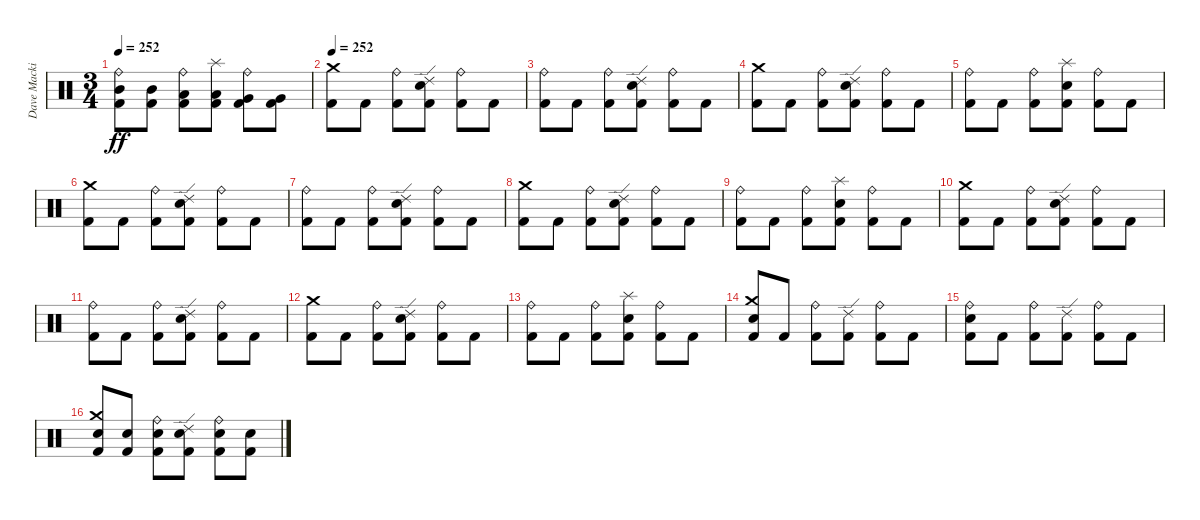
\track ("Dave Mackintosh" "Dave Macki") {instrument percussion}
\staff {score}
\articulation defaults
\ts (3 4)
\tempo 252
\clef neutral
\ks c
("Ride (bell)" "Mid Tom (hit)" "Kick (hit) 2").8{dy ff} ("Mid Tom (hit)" "Kick (hit) 2").8 ("Ride (bell)" "Low Tom (hit)" "Kick (hit) 2").8 ("Splash (hit)" "Low Tom (hit)" "Kick (hit) 2").8 ("Ride (bell)" "Very Low Tom (hit)" "Kick (hit) 2").8 ("Very Low Tom (hit)" "Kick (hit) 2").8 |
\tempo 252
("Crash medium (hit)" "Kick (hit) 2").8 "Kick (hit) 2".8 ("Ride (bell)" "Kick (hit) 2").8 ("Ride (edge) 2" "Electric Snare (hit)" "Kick (hit) 2").8 ("Ride (bell)" "Kick (hit) 2").8 "Kick (hit) 2".8 |
("Ride (bell)" "Kick (hit) 2").8 "Kick (hit) 2".8 ("Ride (bell)" "Kick (hit) 2").8 ("Ride (edge) 2" "Electric Snare (hit)" "Kick (hit) 2").8 ("Ride (bell)" "Kick (hit) 2").8 "Kick (hit) 2".8 |
("Crash medium (hit)" "Kick (hit) 2").8 "Kick (hit) 2".8 ("Ride (bell)" "Kick (hit) 2").8 ("Ride (edge) 2" "Electric Snare (hit)" "Kick (hit) 2").8 ("Ride (bell)" "Kick (hit) 2").8 "Kick (hit) 2".8 |
("Ride (bell)" "Kick (hit) 2").8 "Kick (hit) 2".8 ("Ride (bell)" "Kick (hit) 2").8 ("Splash (hit)" "Electric Snare (hit)" "Kick (hit) 2").8 ("Ride (bell)" "Kick (hit) 2").8 "Kick (hit) 2".8 |
("Crash medium (hit)" "Kick (hit) 2").8 "Kick (hit) 2".8 ("Ride (bell)" "Kick (hit) 2").8 ("Ride (edge) 2" "Electric Snare (hit)" "Kick (hit) 2").8 ("Ride (bell)" "Kick (hit) 2").8 "Kick (hit) 2".8 |
("Ride (bell)" "Kick (hit) 2").8 "Kick (hit) 2".8 ("Ride (bell)" "Kick (hit) 2").8 ("Ride (edge) 2" "Electric Snare (hit)" "Kick (hit) 2").8 ("Ride (bell)" "Kick (hit) 2").8 "Kick (hit) 2".8 |
("Crash medium (hit)" "Kick (hit) 2").8 "Kick (hit) 2".8 ("Ride (bell)" "Kick (hit) 2").8 ("Ride (edge) 2" "Electric Snare (hit)" "Kick (hit) 2").8 ("Ride (bell)" "Kick (hit) 2").8 "Kick (hit) 2".8 |
("Ride (bell)" "Kick (hit) 2").8 "Kick (hit) 2".8 ("Ride (bell)" "Kick (hit) 2").8 ("Splash (hit)" "Electric Snare (hit)" "Kick (hit) 2").8 ("Ride (bell)" "Kick (hit) 2").8 "Kick (hit) 2".8 |
("Crash medium (hit)" "Kick (hit) 2").8 "Kick (hit) 2".8 ("Ride (bell)" "Kick (hit) 2").8 ("Ride (edge) 2" "Electric Snare (hit)" "Kick (hit) 2").8 ("Ride (bell)" "Kick (hit) 2").8 "Kick (hit) 2".8 |
("Ride (bell)" "Kick (hit) 2").8 "Kick (hit) 2".8 ("Ride (bell)" "Kick (hit) 2").8 ("Ride (edge) 2" "Electric Snare (hit)" "Kick (hit) 2").8 ("Ride (bell)" "Kick (hit) 2").8 "Kick (hit) 2".8 |
("Crash medium (hit)" "Kick (hit) 2").8 "Kick (hit) 2".8 ("Ride (bell)" "Kick (hit) 2").8 ("Ride (edge) 2" "Electric Snare (hit)" "Kick (hit) 2").8 ("Ride (bell)" "Kick (hit) 2").8 "Kick (hit) 2".8 |
("Ride (bell)" "Kick (hit) 2").8 "Kick (hit) 2".8 ("Ride (bell)" "Kick (hit) 2").8 ("Splash (hit)" "Electric Snare (hit)" "Kick (hit) 2").8 ("Ride (bell)" "Kick (hit) 2").8 "Kick (hit) 2".8 |
("Crash medium (hit)" "Electric Snare (hit)" "Kick (hit) 2").8 "Kick (hit) 2".8 ("Ride (bell)" "Kick (hit) 2").8 ("Ride (edge) 2" "Kick (hit) 2").8 ("Ride (bell)" "Kick (hit) 2").8 "Kick (hit) 2".8 |
("Ride (bell)" "Electric Snare (hit)" "Kick (hit) 2").8 "Kick (hit) 2".8 ("Ride (bell)" "Kick (hit) 2").8 ("Ride (edge) 2" "Kick (hit) 2").8 ("Ride (bell)" "Kick (hit) 2").8 "Kick (hit) 2".8 |
("Crash medium (hit)" "Electric Snare (hit)" "Kick (hit) 2").8 ("Electric Snare (hit)" "Kick (hit) 2").8 ("Ride (bell)" "Electric Snare (hit)" "Kick (hit) 2").8 ("Ride (edge) 2" "Electric Snare (hit)" "Kick (hit) 2").8 ("Ride (bell)" "Electric Snare (hit)" "Kick (hit) 2").8 ("Electric Snare (hit)" "Kick (hit) 2").8
